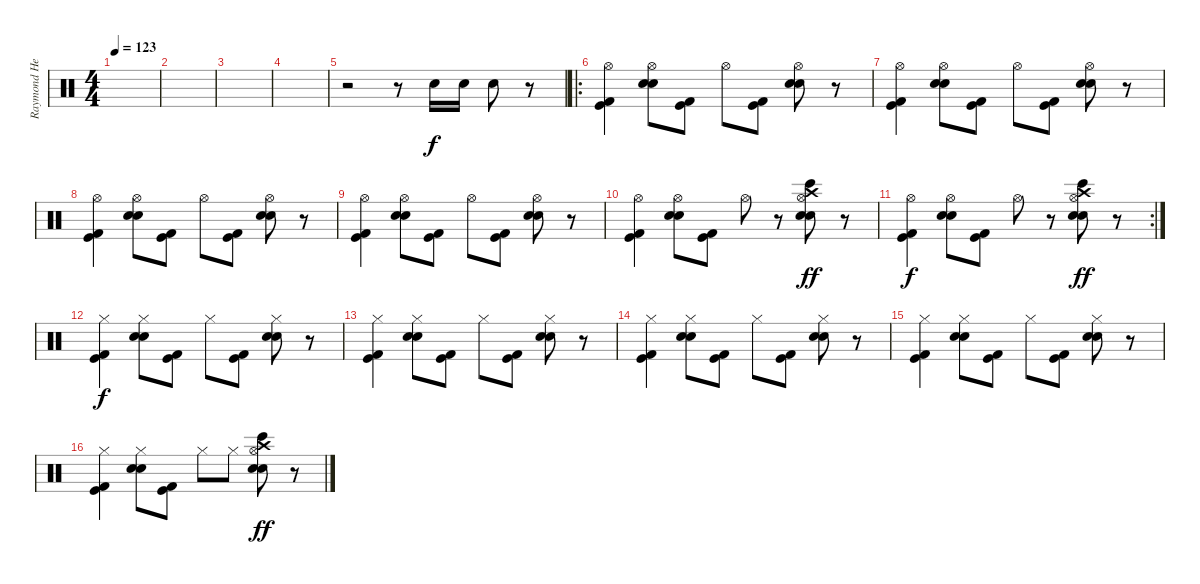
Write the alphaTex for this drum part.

\track ("Raymond Herrera" "Raymond He") {instrument percussion}
\staff {score}
\articulation defaults
\ts (4 4)
\tempo 123
\clef neutral
\ks c
|
|
|
|
r.2 r.8 "Electric Snare (hit)".16 "Electric Snare (hit)".16 "Electric Snare (hit)".8 r.8 |
\ro
("Hi-Hat (open)" "Kick (hit)" "Kick (hit) 2").4{dy f} ("Hi-Hat (open)" "Electric Snare (hit)" "Electric Snare (hit)").8 ("Kick (hit)" "Kick (hit) 2").8 "Hi-Hat (open)".8 ("Kick (hit) 2" "Kick (hit)").8 ("Hi-Hat (open)" "Electric Snare (hit)" "Electric Snare (hit)").8 r.8 |
("Hi-Hat (open)" "Kick (hit)" "Kick (hit) 2").4 ("Hi-Hat (open)" "Electric Snare (hit)" "Electric Snare (hit)").8 ("Kick (hit)" "Kick (hit) 2").8 "Hi-Hat (open)".8 ("Kick (hit) 2" "Kick (hit)").8 ("Hi-Hat (open)" "Electric Snare (hit)" "Electric Snare (hit)").8 r.8 |
("Hi-Hat (open)" "Kick (hit)" "Kick (hit) 2").4 ("Hi-Hat (open)" "Electric Snare (hit)" "Electric Snare (hit)").8 ("Kick (hit)" "Kick (hit) 2").8 "Hi-Hat (open)".8 ("Kick (hit) 2" "Kick (hit)").8 ("Hi-Hat (open)" "Electric Snare (hit)" "Electric Snare (hit)").8 r.8 |
("Hi-Hat (open)" "Kick (hit)" "Kick (hit) 2").4 ("Hi-Hat (open)" "Electric Snare (hit)" "Electric Snare (hit)").8 ("Kick (hit)" "Kick (hit) 2").8 "Hi-Hat (open)".8 ("Kick (hit) 2" "Kick (hit)").8 ("Hi-Hat (open)" "Electric Snare (hit)" "Electric Snare (hit)").8 r.8 |
("Hi-Hat (open)" "Kick (hit)" "Kick (hit) 2").4 ("Hi-Hat (open)" "Electric Snare (hit)" "Electric Snare (hit)").8 ("Kick (hit)" "Kick (hit) 2").8 "Hi-Hat (open)".8 r.8 ("Hi-Hat (open)" "Crash high (hit)" "Electric Snare (hit)" "Electric Snare (hit)" "Bongo High (hit)").8{dy ff} r.8 |
\rc 2
("Hi-Hat (open)" "Kick (hit)" "Kick (hit) 2").4{dy f} ("Hi-Hat (open)" "Electric Snare (hit)" "Electric Snare (hit)").8 ("Kick (hit)" "Kick (hit) 2").8 "Hi-Hat (open)".8 r.8 ("Hi-Hat (open)" "Crash high (hit)" "Electric Snare (hit)" "Electric Snare (hit)" "Bongo High (hit)").8{dy ff} r.8 |
("Hi-Hat (closed)" "Kick (hit)" "Kick (hit) 2").4{dy f} ("Hi-Hat (closed)" "Electric Snare (hit)" "Electric Snare (hit)").8 ("Kick (hit)" "Kick (hit) 2").8 "Hi-Hat (closed)".8 ("Kick (hit) 2" "Kick (hit)").8 ("Hi-Hat (closed)" "Electric Snare (hit)" "Electric Snare (hit)").8 r.8 |
("Hi-Hat (closed)" "Kick (hit)" "Kick (hit) 2").4 ("Hi-Hat (closed)" "Electric Snare (hit)" "Electric Snare (hit)").8 ("Kick (hit)" "Kick (hit) 2").8 "Hi-Hat (closed)".8 ("Kick (hit) 2" "Kick (hit)").8 ("Hi-Hat (closed)" "Electric Snare (hit)" "Electric Snare (hit)").8 r.8 |
("Hi-Hat (closed)" "Kick (hit)" "Kick (hit) 2").4 ("Hi-Hat (closed)" "Electric Snare (hit)" "Electric Snare (hit)").8 ("Kick (hit)" "Kick (hit) 2").8 "Hi-Hat (closed)".8 ("Kick (hit) 2" "Kick (hit)").8 ("Hi-Hat (closed)" "Electric Snare (hit)" "Electric Snare (hit)").8 r.8 |
("Hi-Hat (closed)" "Kick (hit)" "Kick (hit) 2").4 ("Hi-Hat (closed)" "Electric Snare (hit)" "Electric Snare (hit)").8 ("Kick (hit)" "Kick (hit) 2").8 "Hi-Hat (closed)".8 ("Kick (hit) 2" "Kick (hit)").8 ("Hi-Hat (closed)" "Electric Snare (hit)" "Electric Snare (hit)").8 r.8 |
("Hi-Hat (closed)" "Kick (hit)" "Kick (hit) 2").4 ("Hi-Hat (closed)" "Electric Snare (hit)" "Electric Snare (hit)").8 ("Kick (hit)" "Kick (hit) 2").8 "Hi-Hat (closed)".8 "Hi-Hat (closed)".8 ("Hi-Hat (open)" "Crash high (hit)" "Electric Snare (hit)" "Electric Snare (hit)" "Bongo High (hit)").8{dy ff} r.8
